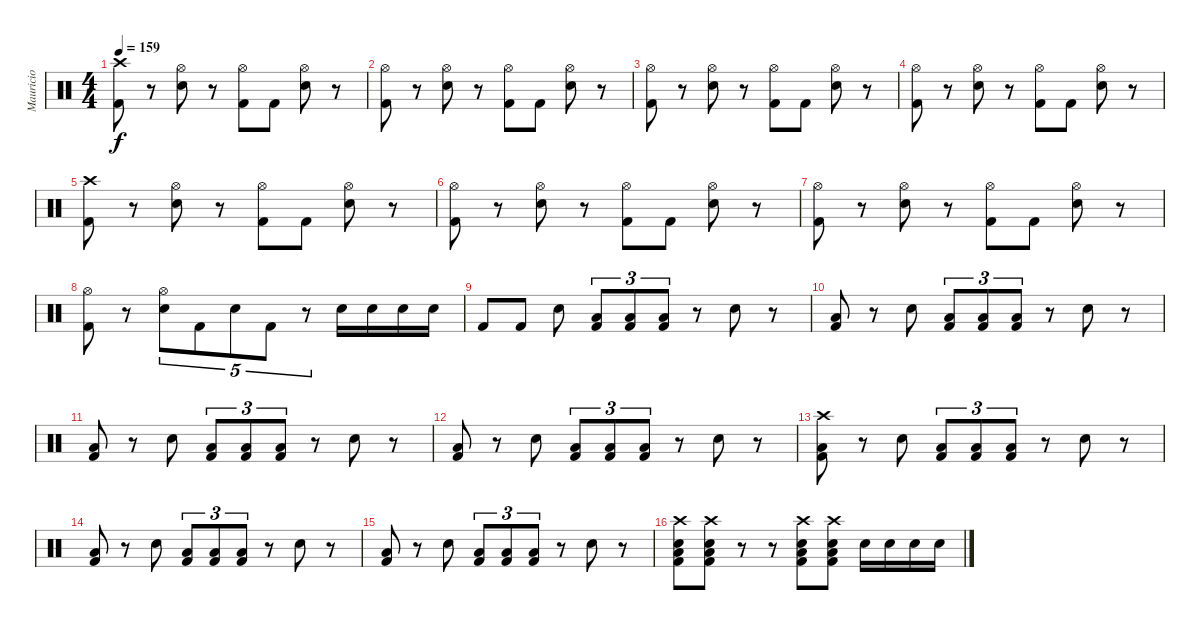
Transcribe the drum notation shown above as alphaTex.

\track ("Mauricio" "Mauricio") {instrument percussion}
\staff {score}
\articulation defaults
\ts (4 4)
\tempo 159
\clef neutral
\ks c
("Crash high (hit)" "Kick (hit) 2").8{dy f} r.8 ("Hi-Hat (open)" "Snare (hit) 2").8 r.8 ("Hi-Hat (open)" "Kick (hit) 2").8 "Kick (hit) 2".8 ("Hi-Hat (open)" "Snare (hit) 2").8 r.8 |
("Hi-Hat (open)" "Kick (hit) 2").8 r.8 ("Hi-Hat (open)" "Snare (hit) 2").8 r.8 ("Hi-Hat (open)" "Kick (hit) 2").8 "Kick (hit) 2".8 ("Hi-Hat (open)" "Snare (hit) 2").8 r.8 |
("Hi-Hat (open)" "Kick (hit) 2").8 r.8 ("Hi-Hat (open)" "Snare (hit) 2").8 r.8 ("Hi-Hat (open)" "Kick (hit) 2").8 "Kick (hit) 2".8 ("Hi-Hat (open)" "Snare (hit) 2").8 r.8 |
("Hi-Hat (open)" "Kick (hit) 2").8 r.8 ("Hi-Hat (open)" "Snare (hit) 2").8 r.8 ("Hi-Hat (open)" "Kick (hit) 2").8 "Kick (hit) 2".8 ("Hi-Hat (open)" "Snare (hit) 2").8 r.8 |
("Crash high (hit)" "Kick (hit) 2").8 r.8 ("Hi-Hat (open)" "Snare (hit) 2").8 r.8 ("Hi-Hat (open)" "Kick (hit) 2").8 "Kick (hit) 2".8 ("Hi-Hat (open)" "Snare (hit) 2").8 r.8 |
("Hi-Hat (open)" "Kick (hit) 2").8 r.8 ("Hi-Hat (open)" "Snare (hit) 2").8 r.8 ("Hi-Hat (open)" "Kick (hit) 2").8 "Kick (hit) 2".8 ("Hi-Hat (open)" "Snare (hit) 2").8 r.8 |
("Hi-Hat (open)" "Kick (hit) 2").8 r.8 ("Hi-Hat (open)" "Snare (hit) 2").8 r.8 ("Hi-Hat (open)" "Kick (hit) 2").8 "Kick (hit) 2".8 ("Hi-Hat (open)" "Snare (hit) 2").8 r.8 |
("Hi-Hat (open)" "Kick (hit) 2").8 r.8 ("Hi-Hat (open)" "Snare (hit) 2").8{tu (5 4)} "Kick (hit) 2".8{tu (5 4)} "Snare (hit) 2".8{tu (5 4)} "Kick (hit) 2".8{tu (5 4)} r.8{tu (5 4)} "Snare (hit) 2".16 "Snare (hit) 2".16 "Snare (hit) 2".16 "Snare (hit) 2".16 |
"Kick (hit) 2".8 "Kick (hit) 2".8 "Snare (hit) 2".8 ("Low Tom (hit)" "Kick (hit) 2").8{tu (3 2)} ("Low Tom (hit)" "Kick (hit) 2").8{tu (3 2)} ("Low Tom (hit)" "Kick (hit) 2").8{tu (3 2)} r.8 "Snare (hit) 2".8 r.8 |
("Low Tom (hit)" "Kick (hit) 2").8 r.8 "Snare (hit) 2".8 ("Low Tom (hit)" "Kick (hit) 2").8{tu (3 2)} ("Low Tom (hit)" "Kick (hit) 2").8{tu (3 2)} ("Low Tom (hit)" "Kick (hit) 2").8{tu (3 2)} r.8 "Snare (hit) 2".8 r.8 |
("Low Tom (hit)" "Kick (hit) 2").8 r.8 "Snare (hit) 2".8 ("Low Tom (hit)" "Kick (hit) 2").8{tu (3 2)} ("Low Tom (hit)" "Kick (hit) 2").8{tu (3 2)} ("Low Tom (hit)" "Kick (hit) 2").8{tu (3 2)} r.8 "Snare (hit) 2".8 r.8 |
("Low Tom (hit)" "Kick (hit) 2").8 r.8 "Snare (hit) 2".8 ("Low Tom (hit)" "Kick (hit) 2").8{tu (3 2)} ("Low Tom (hit)" "Kick (hit) 2").8{tu (3 2)} ("Low Tom (hit)" "Kick (hit) 2").8{tu (3 2)} r.8 "Snare (hit) 2".8 r.8 |
("Crash high (hit)" "Low Tom (hit)" "Kick (hit) 2").8 r.8 "Snare (hit) 2".8 ("Low Tom (hit)" "Kick (hit) 2").8{tu (3 2)} ("Low Tom (hit)" "Kick (hit) 2").8{tu (3 2)} ("Low Tom (hit)" "Kick (hit) 2").8{tu (3 2)} r.8 "Snare (hit) 2".8 r.8 |
("Low Tom (hit)" "Kick (hit) 2").8 r.8 "Snare (hit) 2".8 ("Low Tom (hit)" "Kick (hit) 2").8{tu (3 2)} ("Low Tom (hit)" "Kick (hit) 2").8{tu (3 2)} ("Low Tom (hit)" "Kick (hit) 2").8{tu (3 2)} r.8 "Snare (hit) 2".8 r.8 |
("Low Tom (hit)" "Kick (hit) 2").8 r.8 "Snare (hit) 2".8 ("Low Tom (hit)" "Kick (hit) 2").8{tu (3 2)} ("Low Tom (hit)" "Kick (hit) 2").8{tu (3 2)} ("Low Tom (hit)" "Kick (hit) 2").8{tu (3 2)} r.8 "Snare (hit) 2".8 r.8 |
("Crash high (hit)" "Snare (hit) 2" "Low Tom (hit)" "Kick (hit) 2").8 ("Crash high (hit)" "Snare (hit) 2" "Low Tom (hit)" "Kick (hit) 2").8 r.8 r.8 ("Crash high (hit)" "Snare (hit) 2" "Low Tom (hit)" "Kick (hit) 2").8 ("Crash high (hit)" "Snare (hit) 2" "Low Tom (hit)" "Kick (hit) 2").8 "Snare (hit) 2".16 "Snare (hit) 2".16 "Snare (hit) 2".16 "Snare (hit) 2".16
